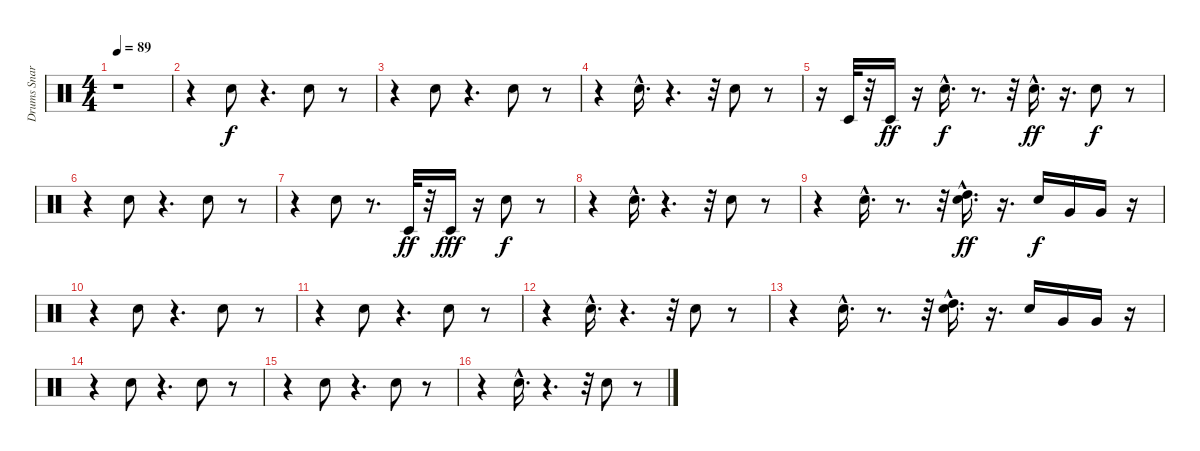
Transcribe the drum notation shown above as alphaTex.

\track ("Drums Snare" "Drums Snar") {instrument percussion}
\staff {score}
\articulation defaults
\ts (4 4)
\tempo 89
\clef neutral
\ks c
r.1{dy f} |
r.4 "Snare (hit) 2".8 r.4{d} "Snare (hit) 2".8 r.8 |
r.4 "Snare (hit) 2".8 r.4{d} "Snare (hit) 2".8 r.8 |
r.4 "Snare (hit) 2"{hac}.16{d} r.4{d} r.32 "Snare (hit) 2".8 r.8 |
r.16 "Timbale low (hit)".32 r.32 "Timbale low (hit)".16{dy ff} r.16 "Snare (hit) 2"{hac}.16{d dy f} r.8{d} r.32 "Snare (hit) 2"{hac}.16{d dy ff} r.16{d} "Snare (hit) 2".8{dy f} r.8 |
r.4 "Snare (hit) 2".8 r.4{d} "Snare (hit) 2".8 r.8 |
r.4 "Snare (hit) 2".8 r.8{d} "Timbale low (hit)".32{dy ff} r.32 "Timbale low (hit)".16{dy fff} r.16 "Snare (hit) 2".8{dy f} r.8 |
r.4 "Snare (hit) 2"{hac}.16{d} r.4{d} r.32 "Snare (hit) 2".8 r.8 |
r.4 "Snare (hit) 2"{hac}.16{d} r.8{d} r.32 ("Snare (hit) 2"{hac} "High Tom (hit)").16{d dy ff} r.16{d} "Snare (hit) 2".16{dy f} "Very Low Tom (hit)".16 "Very Low Tom (hit)".16 r.16 |
r.4 "Snare (hit) 2".8 r.4{d} "Snare (hit) 2".8 r.8 |
r.4 "Snare (hit) 2".8 r.4{d} "Snare (hit) 2".8 r.8 |
r.4 "Snare (hit) 2"{hac}.16{d} r.4{d} r.32 "Snare (hit) 2".8 r.8 |
r.4 "Snare (hit) 2"{hac}.16{d} r.8{d} r.32 ("Snare (hit) 2"{hac} "High Tom (hit)").16{d} r.16{d} "Snare (hit) 2".16 "Very Low Tom (hit)".16 "Very Low Tom (hit)".16 r.16 |
r.4 "Snare (hit) 2".8 r.4{d} "Snare (hit) 2".8 r.8 |
r.4 "Snare (hit) 2".8 r.4{d} "Snare (hit) 2".8 r.8 |
r.4 "Snare (hit) 2"{hac}.16{d} r.4{d} r.32 "Snare (hit) 2".8 r.8
